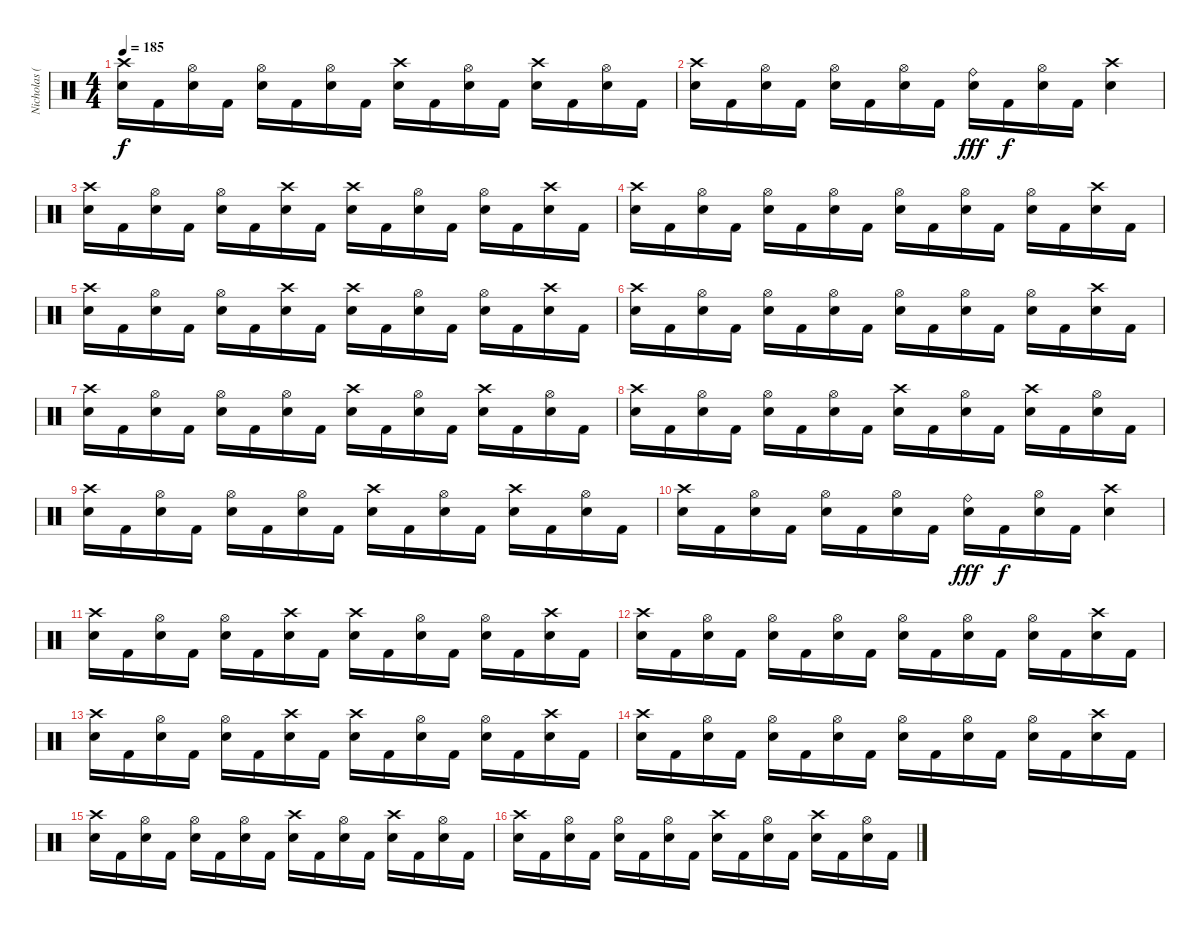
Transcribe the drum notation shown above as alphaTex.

\track ("Nicholas (Drums)" "Nicholas (") {instrument percussion}
\staff {score}
\articulation defaults
\ts (4 4)
\tempo 185
\clef neutral
\ks c
("Crash high (hit)" "Electric Snare (hit)").16{dy f} "Kick (hit) 2".16 ("Hi-Hat (open)" "Electric Snare (hit)").16 "Kick (hit) 2".16 ("Hi-Hat (open)" "Electric Snare (hit)").16 "Kick (hit) 2".16 ("Hi-Hat (open)" "Electric Snare (hit)").16 "Kick (hit) 2".16 ("Crash high (hit)" "Electric Snare (hit)").16 "Kick (hit) 2".16 ("Hi-Hat (open)" "Electric Snare (hit)").16 "Kick (hit) 2".16 ("Crash high (hit)" "Electric Snare (hit)").16 "Kick (hit) 2".16 ("Hi-Hat (open)" "Electric Snare (hit)").16 "Kick (hit) 2".16 |
("Crash high (hit)" "Electric Snare (hit)").16 "Kick (hit) 2".16 ("Hi-Hat (open)" "Electric Snare (hit)").16 "Kick (hit) 2".16 ("Hi-Hat (open)" "Electric Snare (hit)").16 "Kick (hit) 2".16 ("Hi-Hat (open)" "Electric Snare (hit)").16 "Kick (hit) 2".16 ("Ride (bell)" "Electric Snare (hit)").16{dy fff} "Kick (hit) 2".16{dy f} ("Hi-Hat (open)" "Electric Snare (hit)").16 "Kick (hit) 2".16 ("Crash high (hit)" "Electric Snare (hit)").4 |
("Crash high (hit)" "Electric Snare (hit)").16 "Kick (hit) 2".16 ("Hi-Hat (open)" "Electric Snare (hit)").16 "Kick (hit) 2".16 ("Hi-Hat (open)" "Electric Snare (hit)").16 "Kick (hit) 2".16 ("Crash high (hit)" "Electric Snare (hit)").16 "Kick (hit) 2".16 ("Crash high (hit)" "Electric Snare (hit)").16 "Kick (hit) 2".16 ("Hi-Hat (open)" "Electric Snare (hit)").16 "Kick (hit) 2".16 ("Hi-Hat (open)" "Electric Snare (hit)").16 "Kick (hit) 2".16 ("Crash high (hit)" "Electric Snare (hit)").16 "Kick (hit) 2".16 |
("Crash high (hit)" "Electric Snare (hit)").16 "Kick (hit) 2".16 ("Hi-Hat (open)" "Electric Snare (hit)").16 "Kick (hit) 2".16 ("Hi-Hat (open)" "Electric Snare (hit)").16 "Kick (hit) 2".16 ("Hi-Hat (open)" "Electric Snare (hit)").16 "Kick (hit) 2".16 ("Hi-Hat (open)" "Electric Snare (hit)").16 "Kick (hit) 2".16 ("Hi-Hat (open)" "Electric Snare (hit)").16 "Kick (hit) 2".16 ("Hi-Hat (open)" "Electric Snare (hit)").16 "Kick (hit) 2".16 ("Crash high (hit)" "Electric Snare (hit)").16 "Kick (hit) 2".16 |
("Crash high (hit)" "Electric Snare (hit)").16 "Kick (hit) 2".16 ("Hi-Hat (open)" "Electric Snare (hit)").16 "Kick (hit) 2".16 ("Hi-Hat (open)" "Electric Snare (hit)").16 "Kick (hit) 2".16 ("Crash high (hit)" "Electric Snare (hit)").16 "Kick (hit) 2".16 ("Crash high (hit)" "Electric Snare (hit)").16 "Kick (hit) 2".16 ("Hi-Hat (open)" "Electric Snare (hit)").16 "Kick (hit) 2".16 ("Hi-Hat (open)" "Electric Snare (hit)").16 "Kick (hit) 2".16 ("Crash high (hit)" "Electric Snare (hit)").16 "Kick (hit) 2".16 |
("Crash high (hit)" "Electric Snare (hit)").16 "Kick (hit) 2".16 ("Hi-Hat (open)" "Electric Snare (hit)").16 "Kick (hit) 2".16 ("Hi-Hat (open)" "Electric Snare (hit)").16 "Kick (hit) 2".16 ("Hi-Hat (open)" "Electric Snare (hit)").16 "Kick (hit) 2".16 ("Hi-Hat (open)" "Electric Snare (hit)").16 "Kick (hit) 2".16 ("Hi-Hat (open)" "Electric Snare (hit)").16 "Kick (hit) 2".16 ("Hi-Hat (open)" "Electric Snare (hit)").16 "Kick (hit) 2".16 ("Crash high (hit)" "Electric Snare (hit)").16 "Kick (hit) 2".16 |
("Crash high (hit)" "Electric Snare (hit)").16 "Kick (hit) 2".16 ("Hi-Hat (open)" "Electric Snare (hit)").16 "Kick (hit) 2".16 ("Hi-Hat (open)" "Electric Snare (hit)").16 "Kick (hit) 2".16 ("Hi-Hat (open)" "Electric Snare (hit)").16 "Kick (hit) 2".16 ("Crash high (hit)" "Electric Snare (hit)").16 "Kick (hit) 2".16 ("Hi-Hat (open)" "Electric Snare (hit)").16 "Kick (hit) 2".16 ("Crash high (hit)" "Electric Snare (hit)").16 "Kick (hit) 2".16 ("Hi-Hat (open)" "Electric Snare (hit)").16 "Kick (hit) 2".16 |
("Crash high (hit)" "Electric Snare (hit)").16 "Kick (hit) 2".16 ("Hi-Hat (open)" "Electric Snare (hit)").16 "Kick (hit) 2".16 ("Hi-Hat (open)" "Electric Snare (hit)").16 "Kick (hit) 2".16 ("Hi-Hat (open)" "Electric Snare (hit)").16 "Kick (hit) 2".16 ("Crash high (hit)" "Electric Snare (hit)").16 "Kick (hit) 2".16 ("Hi-Hat (open)" "Electric Snare (hit)").16 "Kick (hit) 2".16 ("Crash high (hit)" "Electric Snare (hit)").16 "Kick (hit) 2".16 ("Hi-Hat (open)" "Electric Snare (hit)").16 "Kick (hit) 2".16 |
("Crash high (hit)" "Electric Snare (hit)").16 "Kick (hit) 2".16 ("Hi-Hat (open)" "Electric Snare (hit)").16 "Kick (hit) 2".16 ("Hi-Hat (open)" "Electric Snare (hit)").16 "Kick (hit) 2".16 ("Hi-Hat (open)" "Electric Snare (hit)").16 "Kick (hit) 2".16 ("Crash high (hit)" "Electric Snare (hit)").16 "Kick (hit) 2".16 ("Hi-Hat (open)" "Electric Snare (hit)").16 "Kick (hit) 2".16 ("Crash high (hit)" "Electric Snare (hit)").16 "Kick (hit) 2".16 ("Hi-Hat (open)" "Electric Snare (hit)").16 "Kick (hit) 2".16 |
("Crash high (hit)" "Electric Snare (hit)").16 "Kick (hit) 2".16 ("Hi-Hat (open)" "Electric Snare (hit)").16 "Kick (hit) 2".16 ("Hi-Hat (open)" "Electric Snare (hit)").16 "Kick (hit) 2".16 ("Hi-Hat (open)" "Electric Snare (hit)").16 "Kick (hit) 2".16 ("Ride (bell)" "Electric Snare (hit)").16{dy fff} "Kick (hit) 2".16{dy f} ("Hi-Hat (open)" "Electric Snare (hit)").16 "Kick (hit) 2".16 ("Crash high (hit)" "Electric Snare (hit)").4 |
("Crash high (hit)" "Electric Snare (hit)").16 "Kick (hit) 2".16 ("Hi-Hat (open)" "Electric Snare (hit)").16 "Kick (hit) 2".16 ("Hi-Hat (open)" "Electric Snare (hit)").16 "Kick (hit) 2".16 ("Crash high (hit)" "Electric Snare (hit)").16 "Kick (hit) 2".16 ("Crash high (hit)" "Electric Snare (hit)").16 "Kick (hit) 2".16 ("Hi-Hat (open)" "Electric Snare (hit)").16 "Kick (hit) 2".16 ("Hi-Hat (open)" "Electric Snare (hit)").16 "Kick (hit) 2".16 ("Crash high (hit)" "Electric Snare (hit)").16 "Kick (hit) 2".16 |
("Crash high (hit)" "Electric Snare (hit)").16 "Kick (hit) 2".16 ("Hi-Hat (open)" "Electric Snare (hit)").16 "Kick (hit) 2".16 ("Hi-Hat (open)" "Electric Snare (hit)").16 "Kick (hit) 2".16 ("Hi-Hat (open)" "Electric Snare (hit)").16 "Kick (hit) 2".16 ("Hi-Hat (open)" "Electric Snare (hit)").16 "Kick (hit) 2".16 ("Hi-Hat (open)" "Electric Snare (hit)").16 "Kick (hit) 2".16 ("Hi-Hat (open)" "Electric Snare (hit)").16 "Kick (hit) 2".16 ("Crash high (hit)" "Electric Snare (hit)").16 "Kick (hit) 2".16 |
("Crash high (hit)" "Electric Snare (hit)").16 "Kick (hit) 2".16 ("Hi-Hat (open)" "Electric Snare (hit)").16 "Kick (hit) 2".16 ("Hi-Hat (open)" "Electric Snare (hit)").16 "Kick (hit) 2".16 ("Crash high (hit)" "Electric Snare (hit)").16 "Kick (hit) 2".16 ("Crash high (hit)" "Electric Snare (hit)").16 "Kick (hit) 2".16 ("Hi-Hat (open)" "Electric Snare (hit)").16 "Kick (hit) 2".16 ("Hi-Hat (open)" "Electric Snare (hit)").16 "Kick (hit) 2".16 ("Crash high (hit)" "Electric Snare (hit)").16 "Kick (hit) 2".16 |
("Crash high (hit)" "Electric Snare (hit)").16 "Kick (hit) 2".16 ("Hi-Hat (open)" "Electric Snare (hit)").16 "Kick (hit) 2".16 ("Hi-Hat (open)" "Electric Snare (hit)").16 "Kick (hit) 2".16 ("Hi-Hat (open)" "Electric Snare (hit)").16 "Kick (hit) 2".16 ("Hi-Hat (open)" "Electric Snare (hit)").16 "Kick (hit) 2".16 ("Hi-Hat (open)" "Electric Snare (hit)").16 "Kick (hit) 2".16 ("Hi-Hat (open)" "Electric Snare (hit)").16 "Kick (hit) 2".16 ("Crash high (hit)" "Electric Snare (hit)").16 "Kick (hit) 2".16 |
("Crash high (hit)" "Electric Snare (hit)").16 "Kick (hit) 2".16 ("Hi-Hat (open)" "Electric Snare (hit)").16 "Kick (hit) 2".16 ("Hi-Hat (open)" "Electric Snare (hit)").16 "Kick (hit) 2".16 ("Hi-Hat (open)" "Electric Snare (hit)").16 "Kick (hit) 2".16 ("Crash high (hit)" "Electric Snare (hit)").16 "Kick (hit) 2".16 ("Hi-Hat (open)" "Electric Snare (hit)").16 "Kick (hit) 2".16 ("Crash high (hit)" "Electric Snare (hit)").16 "Kick (hit) 2".16 ("Hi-Hat (open)" "Electric Snare (hit)").16 "Kick (hit) 2".16 |
("Crash high (hit)" "Electric Snare (hit)").16 "Kick (hit) 2".16 ("Hi-Hat (open)" "Electric Snare (hit)").16 "Kick (hit) 2".16 ("Hi-Hat (open)" "Electric Snare (hit)").16 "Kick (hit) 2".16 ("Hi-Hat (open)" "Electric Snare (hit)").16 "Kick (hit) 2".16 ("Crash high (hit)" "Electric Snare (hit)").16 "Kick (hit) 2".16 ("Hi-Hat (open)" "Electric Snare (hit)").16 "Kick (hit) 2".16 ("Crash high (hit)" "Electric Snare (hit)").16 "Kick (hit) 2".16 ("Hi-Hat (open)" "Electric Snare (hit)").16 "Kick (hit) 2".16
